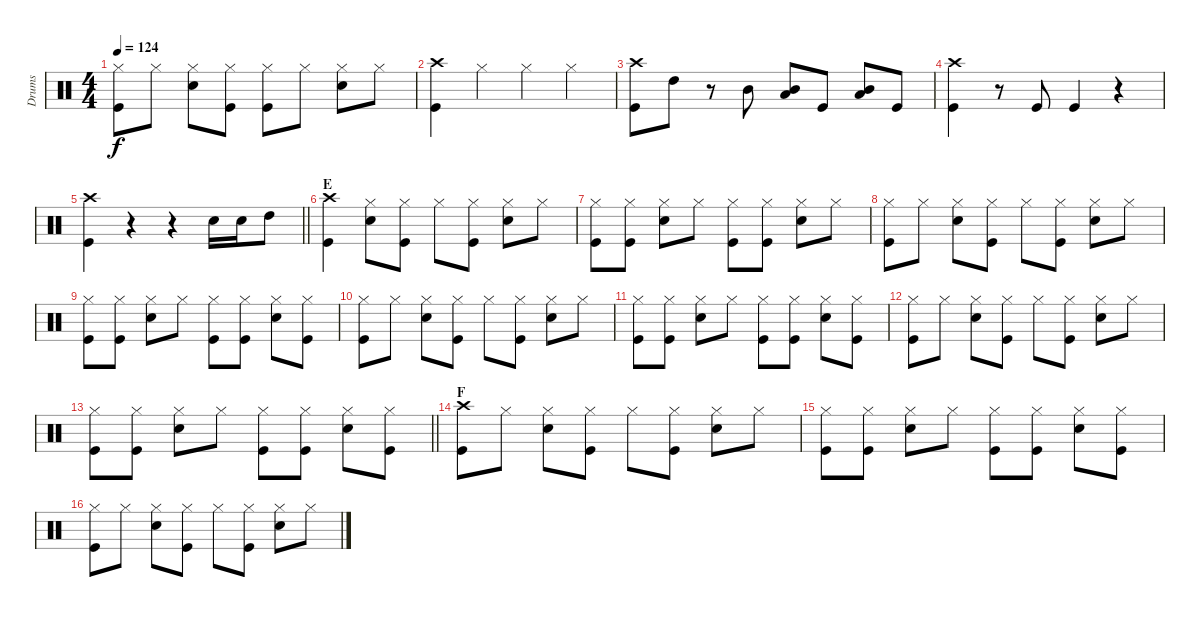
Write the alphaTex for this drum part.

\track ("Drums" "Drums") {instrument percussion}
\staff {score}
\articulation defaults
\ts (4 4)
\tempo 124
\clef neutral
\ks c
("Hi-Hat (closed)" "Kick (hit)").8{dy f} "Hi-Hat (closed)".8 ("Hi-Hat (closed)" "Electric Snare (hit)").8 ("Hi-Hat (closed)" "Kick (hit)").8 ("Hi-Hat (closed)" "Kick (hit)").8 "Hi-Hat (closed)".8 ("Hi-Hat (closed)" "Electric Snare (hit)").8 "Hi-Hat (closed)".8 |
("Crash high (hit)" "Kick (hit)").4 "Hi-Hat (closed)".4 "Hi-Hat (closed)".4 "Hi-Hat (closed)".4 |
("Crash high (hit)" "Kick (hit)").8 "High Tom (hit)".8 r.8 "Mid Tom (hit)".8 ("Mid Tom (hit)" "Low Tom (hit)").8 "Kick (hit)".8 ("Mid Tom (hit)" "Low Tom (hit)").8 "Kick (hit)".8 |
("Crash high (hit)" "Kick (hit)").4 r.8 "Kick (hit)".8 "Kick (hit)".4 r.4 |
\barLineRight lightlight
("Crash high (hit)" "Kick (hit)").4 r.4 r.4 "Electric Snare (hit)".16 "Electric Snare (hit)".16 "High Tom (hit)".8 |
\section ("" "E")
("Crash high (hit)" "Kick (hit)").4 ("Hi-Hat (closed)" "Electric Snare (hit)").8 ("Hi-Hat (closed)" "Kick (hit)").8 "Hi-Hat (closed)".8 ("Hi-Hat (closed)" "Kick (hit)").8 ("Hi-Hat (closed)" "Electric Snare (hit)").8 "Hi-Hat (closed)".8 |
("Hi-Hat (closed)" "Kick (hit)").8 ("Hi-Hat (closed)" "Kick (hit)").8 ("Hi-Hat (closed)" "Electric Snare (hit)").8 "Hi-Hat (closed)".8 ("Hi-Hat (closed)" "Kick (hit)").8 ("Hi-Hat (closed)" "Kick (hit)").8 ("Hi-Hat (closed)" "Electric Snare (hit)").8 "Hi-Hat (closed)".8 |
("Hi-Hat (closed)" "Kick (hit)").8 "Hi-Hat (closed)".8 ("Hi-Hat (closed)" "Electric Snare (hit)").8 ("Hi-Hat (closed)" "Kick (hit)").8 "Hi-Hat (closed)".8 ("Hi-Hat (closed)" "Kick (hit)").8 ("Hi-Hat (closed)" "Electric Snare (hit)").8 "Hi-Hat (closed)".8 |
("Hi-Hat (closed)" "Kick (hit)").8 ("Hi-Hat (closed)" "Kick (hit)").8 ("Hi-Hat (closed)" "Electric Snare (hit)").8 "Hi-Hat (closed)".8 ("Hi-Hat (closed)" "Kick (hit)").8 ("Hi-Hat (closed)" "Kick (hit)").8 ("Hi-Hat (closed)" "Electric Snare (hit)").8 ("Hi-Hat (closed)" "Kick (hit)").8 |
("Hi-Hat (closed)" "Kick (hit)").8 "Hi-Hat (closed)".8 ("Hi-Hat (closed)" "Electric Snare (hit)").8 ("Hi-Hat (closed)" "Kick (hit)").8 "Hi-Hat (closed)".8 ("Hi-Hat (closed)" "Kick (hit)").8 ("Hi-Hat (closed)" "Electric Snare (hit)").8 "Hi-Hat (closed)".8 |
("Hi-Hat (closed)" "Kick (hit)").8 ("Hi-Hat (closed)" "Kick (hit)").8 ("Hi-Hat (closed)" "Electric Snare (hit)").8 "Hi-Hat (closed)".8 ("Hi-Hat (closed)" "Kick (hit)").8 ("Hi-Hat (closed)" "Kick (hit)").8 ("Hi-Hat (closed)" "Electric Snare (hit)").8 ("Hi-Hat (closed)" "Kick (hit)").8 |
("Hi-Hat (closed)" "Kick (hit)").8 "Hi-Hat (closed)".8 ("Hi-Hat (closed)" "Electric Snare (hit)").8 ("Hi-Hat (closed)" "Kick (hit)").8 "Hi-Hat (closed)".8 ("Hi-Hat (closed)" "Kick (hit)").8 ("Hi-Hat (closed)" "Electric Snare (hit)").8 "Hi-Hat (closed)".8 |
\barLineRight lightlight
("Hi-Hat (closed)" "Kick (hit)").8 ("Hi-Hat (closed)" "Kick (hit)").8 ("Hi-Hat (closed)" "Electric Snare (hit)").8 "Hi-Hat (closed)".8 ("Hi-Hat (closed)" "Kick (hit)").8 ("Hi-Hat (closed)" "Kick (hit)").8 ("Hi-Hat (closed)" "Electric Snare (hit)").8 ("Hi-Hat (closed)" "Kick (hit)").8 |
\section ("" "F")
("Crash high (hit)" "Kick (hit)").8 "Hi-Hat (closed)".8 ("Hi-Hat (closed)" "Electric Snare (hit)").8 ("Hi-Hat (closed)" "Kick (hit)").8 "Hi-Hat (closed)".8 ("Hi-Hat (closed)" "Kick (hit)").8 ("Hi-Hat (closed)" "Electric Snare (hit)").8 "Hi-Hat (closed)".8 |
("Hi-Hat (closed)" "Kick (hit)").8 ("Hi-Hat (closed)" "Kick (hit)").8 ("Hi-Hat (closed)" "Electric Snare (hit)").8 "Hi-Hat (closed)".8 ("Hi-Hat (closed)" "Kick (hit)").8 ("Hi-Hat (closed)" "Kick (hit)").8 ("Hi-Hat (closed)" "Electric Snare (hit)").8 ("Hi-Hat (closed)" "Kick (hit)").8 |
("Hi-Hat (closed)" "Kick (hit)").8 "Hi-Hat (closed)".8 ("Hi-Hat (closed)" "Electric Snare (hit)").8 ("Hi-Hat (closed)" "Kick (hit)").8 "Hi-Hat (closed)".8 ("Hi-Hat (closed)" "Kick (hit)").8 ("Hi-Hat (closed)" "Electric Snare (hit)").8 "Hi-Hat (closed)".8
